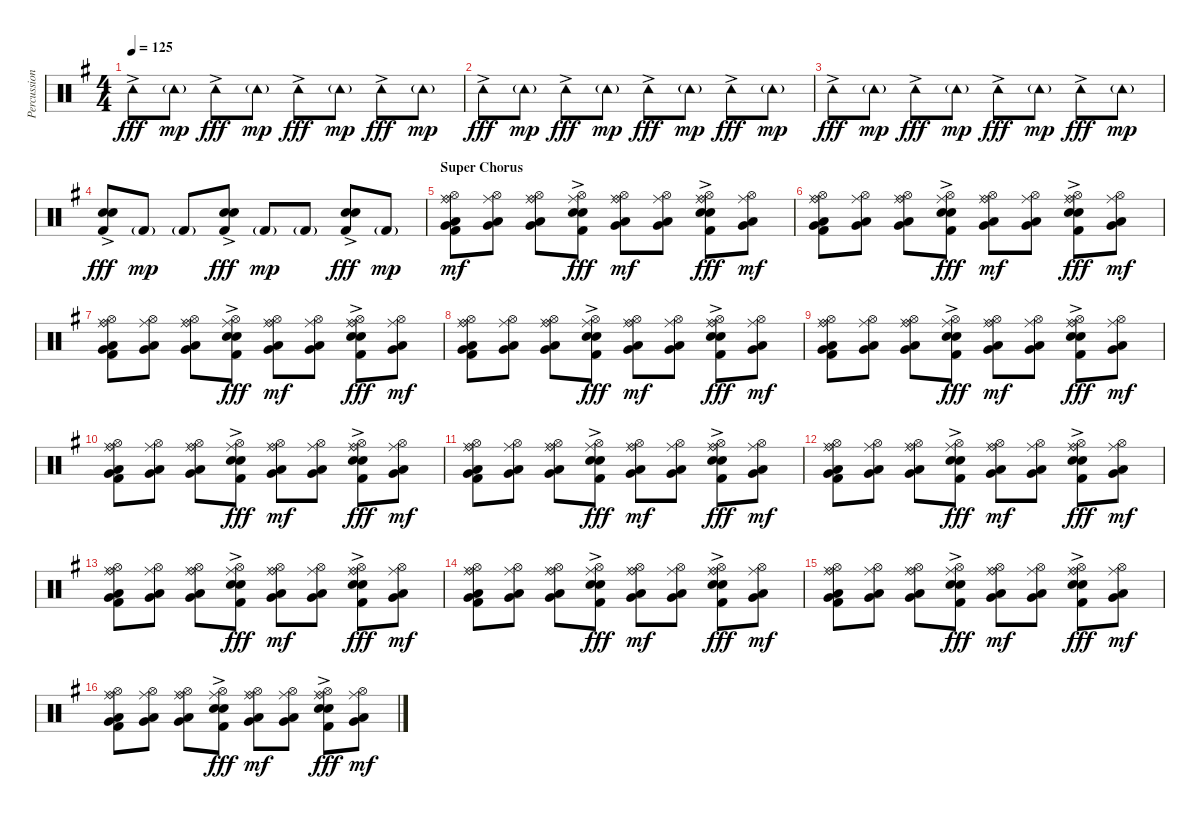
\track ("Percussion" "Percussion") {instrument percussion}
\staff {score}
\articulation defaults
\ts (4 4)
\tempo 125
\clef neutral
\ks g "Tambourine (hit)"{ac}.8{dy fff} "Tambourine (hit)"{g}.8{dy mp} "Tambourine (hit)"{ac}.8{dy fff} "Tambourine (hit)"{g}.8{dy mp} "Tambourine (hit)"{ac}.8{dy fff} "Tambourine (hit)"{g}.8{dy mp} "Tambourine (hit)"{ac}.8{dy fff} "Tambourine (hit)"{g}.8{dy mp}
|
"Tambourine (hit)"{ac}.8{dy fff} "Tambourine (hit)"{g}.8{dy mp} "Tambourine (hit)"{ac}.8{dy fff} "Tambourine (hit)"{g}.8{dy mp} "Tambourine (hit)"{ac}.8{dy fff} "Tambourine (hit)"{g}.8{dy mp} "Tambourine (hit)"{ac}.8{dy fff} "Tambourine (hit)"{g}.8{dy mp} |
"Tambourine (hit)"{ac}.8{dy fff} "Tambourine (hit)"{g}.8{dy mp} "Tambourine (hit)"{ac}.8{dy fff} "Tambourine (hit)"{g}.8{dy mp} "Tambourine (hit)"{ac}.8{dy fff} "Tambourine (hit)"{g}.8{dy mp} "Tambourine (hit)"{ac}.8{dy fff} "Tambourine (hit)"{g}.8{dy mp} |
("Snare (hit) 2"{ac} "Electric Snare (hit)" "Kick (hit) 2").8{dy fff volume 12} "Kick (hit) 2"{g}.8{dy mp} "Kick (hit) 2"{g}.8 ("Snare (hit) 2"{ac} "Electric Snare (hit)" "Kick (hit) 2").8{dy fff} "Kick (hit) 2"{g}.8{dy mp} "Kick (hit) 2"{g}.8 ("Snare (hit) 2"{ac} "Electric Snare (hit)" "Kick (hit) 2").8{dy fff} "Kick (hit) 2"{g}.8{dy mp} |
\section ("" "Super Chorus")
("Ride (bell)" "Hi-Hat (open)" "Ride (middle)" "Low Tom (hit)" "Very Low Tom (hit)" "Kick (hit) 2").8{dy mf} ("Hi-Hat (open)" "Ride (middle)" "Low Tom (hit)" "Very Low Tom (hit)").8 ("Ride (bell)" "Hi-Hat (open)" "Ride (middle)" "Low Tom (hit)" "Very Low Tom (hit)").8 ("Hi-Hat (open)" "Ride (middle)" "Electric Snare (hit)"{ac} "Snare (hit) 2"{ac} "Kick (hit) 2").8{dy fff} ("Ride (bell)" "Hi-Hat (open)" "Ride (middle)" "Low Tom (hit)" "Very Low Tom (hit)").8{dy mf} ("Hi-Hat (open)" "Ride (middle)" "Low Tom (hit)" "Very Low Tom (hit)").8 ("Ride (bell)" "Hi-Hat (open)" "Ride (middle)" "Electric Snare (hit)"{ac} "Snare (hit) 2"{ac} "Kick (hit) 2").8{dy fff} ("Hi-Hat (open)" "Ride (middle)" "Low Tom (hit)" "Very Low Tom (hit)").8{dy mf} |
("Ride (bell)" "Hi-Hat (open)" "Ride (middle)" "Low Tom (hit)" "Very Low Tom (hit)" "Kick (hit) 2").8 ("Hi-Hat (open)" "Ride (middle)" "Low Tom (hit)" "Very Low Tom (hit)").8 ("Ride (bell)" "Hi-Hat (open)" "Ride (middle)" "Low Tom (hit)" "Very Low Tom (hit)").8 ("Hi-Hat (open)" "Ride (middle)" "Electric Snare (hit)"{ac} "Snare (hit) 2"{ac} "Kick (hit) 2").8{dy fff} ("Ride (bell)" "Hi-Hat (open)" "Ride (middle)" "Low Tom (hit)" "Very Low Tom (hit)").8{dy mf} ("Hi-Hat (open)" "Ride (middle)" "Low Tom (hit)" "Very Low Tom (hit)").8 ("Ride (bell)" "Hi-Hat (open)" "Ride (middle)" "Electric Snare (hit)"{ac} "Snare (hit) 2"{ac} "Kick (hit) 2").8{dy fff} ("Hi-Hat (open)" "Ride (middle)" "Low Tom (hit)" "Very Low Tom (hit)").8{dy mf} |
("Ride (bell)" "Hi-Hat (open)" "Ride (middle)" "Low Tom (hit)" "Very Low Tom (hit)" "Kick (hit) 2").8 ("Hi-Hat (open)" "Ride (middle)" "Low Tom (hit)" "Very Low Tom (hit)").8 ("Ride (bell)" "Hi-Hat (open)" "Ride (middle)" "Low Tom (hit)" "Very Low Tom (hit)").8 ("Hi-Hat (open)" "Ride (middle)" "Electric Snare (hit)"{ac} "Snare (hit) 2"{ac} "Kick (hit) 2").8{dy fff} ("Ride (bell)" "Hi-Hat (open)" "Ride (middle)" "Low Tom (hit)" "Very Low Tom (hit)").8{dy mf} ("Hi-Hat (open)" "Ride (middle)" "Low Tom (hit)" "Very Low Tom (hit)").8 ("Ride (bell)" "Hi-Hat (open)" "Ride (middle)" "Electric Snare (hit)"{ac} "Snare (hit) 2"{ac} "Kick (hit) 2").8{dy fff} ("Hi-Hat (open)" "Ride (middle)" "Low Tom (hit)" "Very Low Tom (hit)").8{dy mf} |
("Ride (bell)" "Hi-Hat (open)" "Ride (middle)" "Low Tom (hit)" "Very Low Tom (hit)" "Kick (hit) 2").8 ("Hi-Hat (open)" "Ride (middle)" "Low Tom (hit)" "Very Low Tom (hit)").8 ("Ride (bell)" "Hi-Hat (open)" "Ride (middle)" "Low Tom (hit)" "Very Low Tom (hit)").8 ("Hi-Hat (open)" "Ride (middle)" "Electric Snare (hit)"{ac} "Snare (hit) 2"{ac} "Kick (hit) 2").8{dy fff} ("Ride (bell)" "Hi-Hat (open)" "Ride (middle)" "Low Tom (hit)" "Very Low Tom (hit)").8{dy mf} ("Hi-Hat (open)" "Ride (middle)" "Low Tom (hit)" "Very Low Tom (hit)").8 ("Ride (bell)" "Hi-Hat (open)" "Ride (middle)" "Electric Snare (hit)"{ac} "Snare (hit) 2"{ac} "Kick (hit) 2").8{dy fff} ("Hi-Hat (open)" "Ride (middle)" "Low Tom (hit)" "Very Low Tom (hit)").8{dy mf} |
("Ride (bell)" "Hi-Hat (open)" "Ride (middle)" "Low Tom (hit)" "Very Low Tom (hit)" "Kick (hit) 2").8 ("Hi-Hat (open)" "Ride (middle)" "Low Tom (hit)" "Very Low Tom (hit)").8 ("Ride (bell)" "Hi-Hat (open)" "Ride (middle)" "Low Tom (hit)" "Very Low Tom (hit)").8 ("Hi-Hat (open)" "Ride (middle)" "Electric Snare (hit)"{ac} "Snare (hit) 2"{ac} "Kick (hit) 2").8{dy fff} ("Ride (bell)" "Hi-Hat (open)" "Ride (middle)" "Low Tom (hit)" "Very Low Tom (hit)").8{dy mf} ("Hi-Hat (open)" "Ride (middle)" "Low Tom (hit)" "Very Low Tom (hit)").8 ("Ride (bell)" "Hi-Hat (open)" "Ride (middle)" "Electric Snare (hit)"{ac} "Snare (hit) 2"{ac} "Kick (hit) 2").8{dy fff} ("Hi-Hat (open)" "Ride (middle)" "Low Tom (hit)" "Very Low Tom (hit)").8{dy mf} |
("Ride (bell)" "Hi-Hat (open)" "Ride (middle)" "Low Tom (hit)" "Very Low Tom (hit)" "Kick (hit) 2").8 ("Hi-Hat (open)" "Ride (middle)" "Low Tom (hit)" "Very Low Tom (hit)").8 ("Ride (bell)" "Hi-Hat (open)" "Ride (middle)" "Low Tom (hit)" "Very Low Tom (hit)").8 ("Hi-Hat (open)" "Ride (middle)" "Electric Snare (hit)"{ac} "Snare (hit) 2"{ac} "Kick (hit) 2").8{dy fff} ("Ride (bell)" "Hi-Hat (open)" "Ride (middle)" "Low Tom (hit)" "Very Low Tom (hit)").8{dy mf} ("Hi-Hat (open)" "Ride (middle)" "Low Tom (hit)" "Very Low Tom (hit)").8 ("Ride (bell)" "Hi-Hat (open)" "Ride (middle)" "Electric Snare (hit)"{ac} "Snare (hit) 2"{ac} "Kick (hit) 2").8{dy fff} ("Hi-Hat (open)" "Ride (middle)" "Low Tom (hit)" "Very Low Tom (hit)").8{dy mf} |
("Ride (bell)" "Hi-Hat (open)" "Ride (middle)" "Low Tom (hit)" "Very Low Tom (hit)" "Kick (hit) 2").8 ("Hi-Hat (open)" "Ride (middle)" "Low Tom (hit)" "Very Low Tom (hit)").8 ("Ride (bell)" "Hi-Hat (open)" "Ride (middle)" "Low Tom (hit)" "Very Low Tom (hit)").8 ("Hi-Hat (open)" "Ride (middle)" "Electric Snare (hit)"{ac} "Snare (hit) 2"{ac} "Kick (hit) 2").8{dy fff} ("Ride (bell)" "Hi-Hat (open)" "Ride (middle)" "Low Tom (hit)" "Very Low Tom (hit)").8{dy mf} ("Hi-Hat (open)" "Ride (middle)" "Low Tom (hit)" "Very Low Tom (hit)").8 ("Ride (bell)" "Hi-Hat (open)" "Ride (middle)" "Electric Snare (hit)"{ac} "Snare (hit) 2"{ac} "Kick (hit) 2").8{dy fff} ("Hi-Hat (open)" "Ride (middle)" "Low Tom (hit)" "Very Low Tom (hit)").8{dy mf} |
("Ride (bell)" "Hi-Hat (open)" "Ride (middle)" "Low Tom (hit)" "Very Low Tom (hit)" "Kick (hit) 2").8 ("Hi-Hat (open)" "Ride (middle)" "Low Tom (hit)" "Very Low Tom (hit)").8 ("Ride (bell)" "Hi-Hat (open)" "Ride (middle)" "Low Tom (hit)" "Very Low Tom (hit)").8 ("Hi-Hat (open)" "Ride (middle)" "Electric Snare (hit)"{ac} "Snare (hit) 2"{ac} "Kick (hit) 2").8{dy fff} ("Ride (bell)" "Hi-Hat (open)" "Ride (middle)" "Low Tom (hit)" "Very Low Tom (hit)").8{dy mf} ("Hi-Hat (open)" "Ride (middle)" "Low Tom (hit)" "Very Low Tom (hit)").8 ("Ride (bell)" "Hi-Hat (open)" "Ride (middle)" "Electric Snare (hit)"{ac} "Snare (hit) 2"{ac} "Kick (hit) 2").8{dy fff} ("Hi-Hat (open)" "Ride (middle)" "Low Tom (hit)" "Very Low Tom (hit)").8{dy mf} |
("Ride (bell)" "Hi-Hat (open)" "Ride (middle)" "Low Tom (hit)" "Very Low Tom (hit)" "Kick (hit) 2").8 ("Hi-Hat (open)" "Ride (middle)" "Low Tom (hit)" "Very Low Tom (hit)").8 ("Ride (bell)" "Hi-Hat (open)" "Ride (middle)" "Low Tom (hit)" "Very Low Tom (hit)").8 ("Hi-Hat (open)" "Ride (middle)" "Electric Snare (hit)"{ac} "Snare (hit) 2"{ac} "Kick (hit) 2").8{dy fff} ("Ride (bell)" "Hi-Hat (open)" "Ride (middle)" "Low Tom (hit)" "Very Low Tom (hit)").8{dy mf} ("Hi-Hat (open)" "Ride (middle)" "Low Tom (hit)" "Very Low Tom (hit)").8 ("Ride (bell)" "Hi-Hat (open)" "Ride (middle)" "Electric Snare (hit)"{ac} "Snare (hit) 2"{ac} "Kick (hit) 2").8{dy fff} ("Hi-Hat (open)" "Ride (middle)" "Low Tom (hit)" "Very Low Tom (hit)").8{dy mf} |
("Ride (bell)" "Hi-Hat (open)" "Ride (middle)" "Low Tom (hit)" "Very Low Tom (hit)" "Kick (hit) 2").8 ("Hi-Hat (open)" "Ride (middle)" "Low Tom (hit)" "Very Low Tom (hit)").8 ("Ride (bell)" "Hi-Hat (open)" "Ride (middle)" "Low Tom (hit)" "Very Low Tom (hit)").8 ("Hi-Hat (open)" "Ride (middle)" "Electric Snare (hit)"{ac} "Snare (hit) 2"{ac} "Kick (hit) 2").8{dy fff} ("Ride (bell)" "Hi-Hat (open)" "Ride (middle)" "Low Tom (hit)" "Very Low Tom (hit)").8{dy mf} ("Hi-Hat (open)" "Ride (middle)" "Low Tom (hit)" "Very Low Tom (hit)").8 ("Ride (bell)" "Hi-Hat (open)" "Ride (middle)" "Electric Snare (hit)"{ac} "Snare (hit) 2"{ac} "Kick (hit) 2").8{dy fff} ("Hi-Hat (open)" "Ride (middle)" "Low Tom (hit)" "Very Low Tom (hit)").8{dy mf} |
("Ride (bell)" "Hi-Hat (open)" "Ride (middle)" "Low Tom (hit)" "Very Low Tom (hit)" "Kick (hit) 2").8 ("Hi-Hat (open)" "Ride (middle)" "Low Tom (hit)" "Very Low Tom (hit)").8 ("Ride (bell)" "Hi-Hat (open)" "Ride (middle)" "Low Tom (hit)" "Very Low Tom (hit)").8 ("Hi-Hat (open)" "Ride (middle)" "Electric Snare (hit)"{ac} "Snare (hit) 2"{ac} "Kick (hit) 2").8{dy fff} ("Ride (bell)" "Hi-Hat (open)" "Ride (middle)" "Low Tom (hit)" "Very Low Tom (hit)").8{dy mf} ("Hi-Hat (open)" "Ride (middle)" "Low Tom (hit)" "Very Low Tom (hit)").8 ("Ride (bell)" "Hi-Hat (open)" "Ride (middle)" "Electric Snare (hit)"{ac} "Snare (hit) 2"{ac} "Kick (hit) 2").8{dy fff} ("Hi-Hat (open)" "Ride (middle)" "Low Tom (hit)" "Very Low Tom (hit)").8{dy mf} |
("Ride (bell)" "Hi-Hat (open)" "Ride (middle)" "Low Tom (hit)" "Very Low Tom (hit)" "Kick (hit) 2").8 ("Hi-Hat (open)" "Ride (middle)" "Low Tom (hit)" "Very Low Tom (hit)").8 ("Ride (bell)" "Hi-Hat (open)" "Ride (middle)" "Low Tom (hit)" "Very Low Tom (hit)").8 ("Hi-Hat (open)" "Ride (middle)" "Electric Snare (hit)"{ac} "Snare (hit) 2"{ac} "Kick (hit) 2").8{dy fff} ("Ride (bell)" "Hi-Hat (open)" "Ride (middle)" "Low Tom (hit)" "Very Low Tom (hit)").8{dy mf} ("Hi-Hat (open)" "Ride (middle)" "Low Tom (hit)" "Very Low Tom (hit)").8 ("Ride (bell)" "Hi-Hat (open)" "Ride (middle)" "Electric Snare (hit)"{ac} "Snare (hit) 2"{ac} "Kick (hit) 2").8{dy fff} ("Hi-Hat (open)" "Ride (middle)" "Low Tom (hit)" "Very Low Tom (hit)").8{dy mf}
